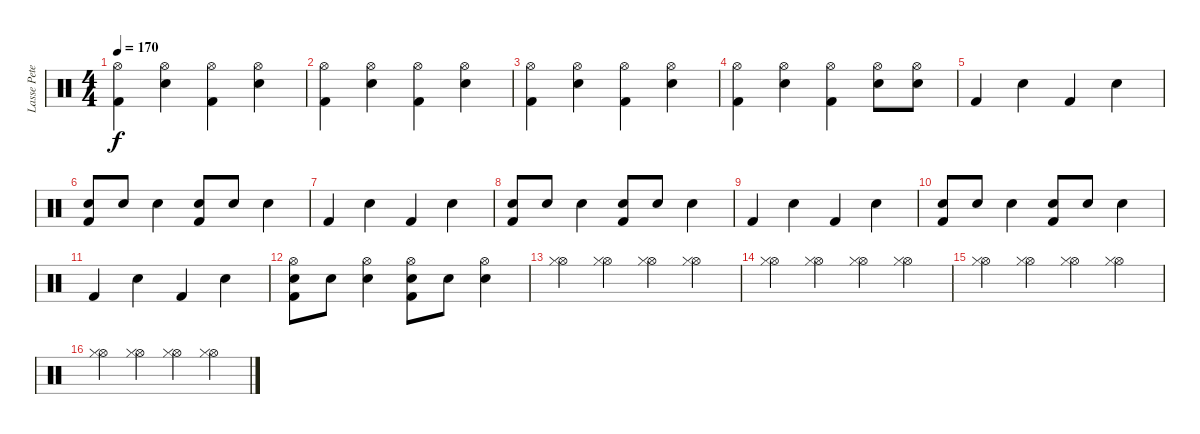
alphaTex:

\track ("Lasse Peterson" "Lasse Pete") {instrument percussion}
\staff {score}
\articulation defaults
\ts (4 4)
\tempo 170
\clef neutral
\ks c
("Hi-Hat (open)" "Kick (hit) 2").4{dy f} ("Hi-Hat (open)" "Snare (hit) 2").4 ("Hi-Hat (open)" "Kick (hit) 2").4 ("Hi-Hat (open)" "Snare (hit) 2").4 |
("Hi-Hat (open)" "Kick (hit) 2").4 ("Hi-Hat (open)" "Snare (hit) 2").4 ("Hi-Hat (open)" "Kick (hit) 2").4 ("Hi-Hat (open)" "Snare (hit) 2").4 |
("Hi-Hat (open)" "Kick (hit) 2").4 ("Hi-Hat (open)" "Snare (hit) 2").4 ("Hi-Hat (open)" "Kick (hit) 2").4 ("Hi-Hat (open)" "Snare (hit) 2").4 |
("Hi-Hat (open)" "Kick (hit) 2").4 ("Hi-Hat (open)" "Snare (hit) 2").4 ("Hi-Hat (open)" "Kick (hit) 2").4 ("Hi-Hat (open)" "Snare (hit) 2").8 ("Hi-Hat (open)" "Snare (hit) 2").8 |
"Kick (hit) 2".4 "Snare (hit) 2".4 "Kick (hit) 2".4 "Snare (hit) 2".4 |
("Hand Clap (hit)" "Kick (hit) 2").8 "Hand Clap (hit)".8 "Snare (hit) 2".4 ("Hand Clap (hit)" "Kick (hit) 2").8 "Hand Clap (hit)".8 "Snare (hit) 2".4 |
"Kick (hit) 2".4 "Snare (hit) 2".4 "Kick (hit) 2".4 "Snare (hit) 2".4 |
("Hand Clap (hit)" "Kick (hit) 2").8 "Hand Clap (hit)".8 "Snare (hit) 2".4 ("Hand Clap (hit)" "Kick (hit) 2").8 "Hand Clap (hit)".8 "Snare (hit) 2".4 |
"Kick (hit) 2".4 "Snare (hit) 2".4 "Kick (hit) 2".4 "Snare (hit) 2".4 |
("Hand Clap (hit)" "Kick (hit) 2").8 "Hand Clap (hit)".8 "Snare (hit) 2".4 ("Hand Clap (hit)" "Kick (hit) 2").8 "Hand Clap (hit)".8 "Snare (hit) 2".4 |
"Kick (hit) 2".4 "Snare (hit) 2".4 "Kick (hit) 2".4 "Snare (hit) 2".4 |
("Hand Clap (hit)" "Hi-Hat (open)" "Kick (hit) 2").8 "Hand Clap (hit)".8 ("Hi-Hat (open)" "Snare (hit) 2").4 ("Hand Clap (hit)" "Hi-Hat (open)" "Kick (hit) 2").8 "Hand Clap (hit)".8 ("Hi-Hat (open)" "Snare (hit) 2").4 |
("Hi-Hat (open)" "Hi-Hat (closed)").4 ("Hi-Hat (open)" "Hi-Hat (closed)").4 ("Hi-Hat (open)" "Hi-Hat (closed)").4 ("Hi-Hat (open)" "Hi-Hat (closed)").4 |
("Hi-Hat (open)" "Hi-Hat (closed)").4 ("Hi-Hat (open)" "Hi-Hat (closed)").4 ("Hi-Hat (open)" "Hi-Hat (closed)").4 ("Hi-Hat (open)" "Hi-Hat (closed)").4 |
("Hi-Hat (open)" "Hi-Hat (closed)").4 ("Hi-Hat (open)" "Hi-Hat (closed)").4 ("Hi-Hat (open)" "Hi-Hat (closed)").4 ("Hi-Hat (open)" "Hi-Hat (closed)").4 |
("Hi-Hat (open)" "Hi-Hat (closed)").4 ("Hi-Hat (open)" "Hi-Hat (closed)").4 ("Hi-Hat (open)" "Hi-Hat (closed)").4 ("Hi-Hat (open)" "Hi-Hat (closed)").4
